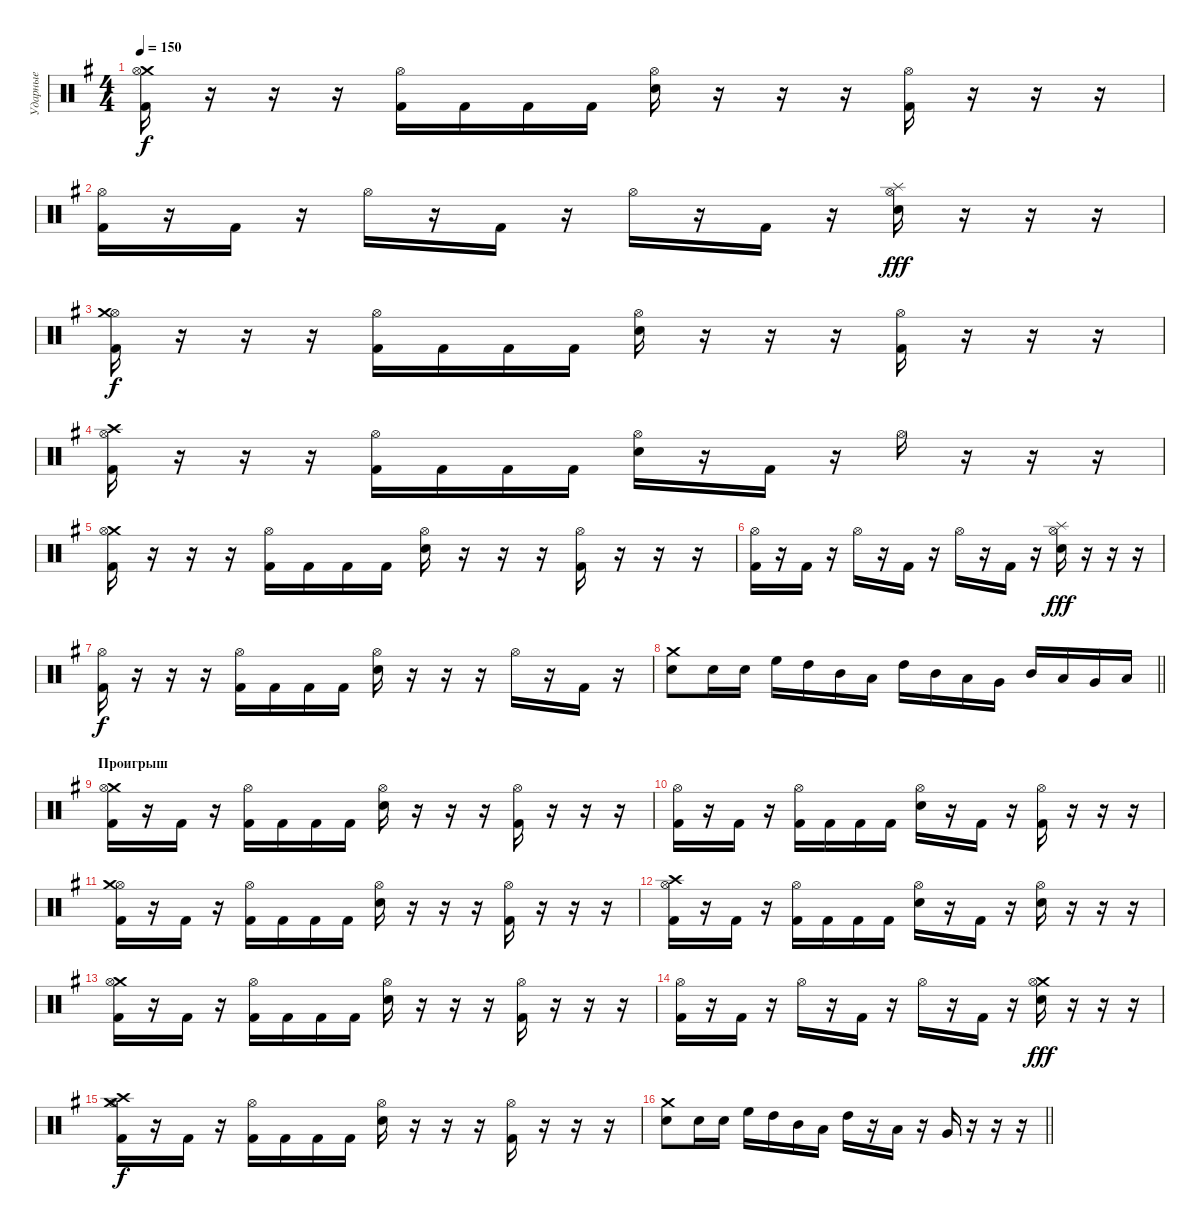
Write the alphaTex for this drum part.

\track ("Ударные" "Ударные") {instrument percussion}
\staff {score}
\articulation defaults
\ts (4 4)
\tempo 150
\clef neutral
\ks eminor
("Crash medium (hit)" "Kick (hit) 2" "Hi-Hat (open)").16{dy f} r.16 r.16 r.16 ("Kick (hit) 2" "Hi-Hat (open)").16 "Kick (hit) 2".16 "Kick (hit) 2".16 "Kick (hit) 2".16 ("Electric Snare (hit)" "Hi-Hat (open)").16 r.16 r.16 r.16 ("Kick (hit) 2" "Hi-Hat (open)").16 r.16 r.16 r.16 |
("Kick (hit) 2" "Hi-Hat (open)").16 r.16 "Kick (hit) 2".16 r.16 "Hi-Hat (open)".16 r.16 "Kick (hit) 2".16 r.16 "Hi-Hat (open)".16 r.16 "Kick (hit) 2".16 r.16 ("Splash (hit)" "Electric Snare (hit)" "Hi-Hat (open)").16{dy fff} r.16 r.16 r.16 |
("Kick (hit) 2" "Hi-Hat (open)" "Crash medium (hit)").16{dy f} r.16 r.16 r.16 ("Kick (hit) 2" "Hi-Hat (open)").16 "Kick (hit) 2".16 "Kick (hit) 2".16 "Kick (hit) 2".16 ("Electric Snare (hit)" "Hi-Hat (open)").16 r.16 r.16 r.16 ("Kick (hit) 2" "Hi-Hat (open)").16 r.16 r.16 r.16 |
("Kick (hit) 2" "Hi-Hat (open)" "Crash high (hit)").16 r.16 r.16 r.16 ("Kick (hit) 2" "Hi-Hat (open)").16 "Kick (hit) 2".16 "Kick (hit) 2".16 "Kick (hit) 2".16 ("Electric Snare (hit)" "Hi-Hat (open)").16 r.16 "Kick (hit) 2".16 r.16 "Hi-Hat (open)".16 r.16 r.16 r.16 |
("Crash medium (hit)" "Kick (hit) 2" "Hi-Hat (open)").16 r.16 r.16 r.16 ("Kick (hit) 2" "Hi-Hat (open)").16 "Kick (hit) 2".16 "Kick (hit) 2".16 "Kick (hit) 2".16 ("Electric Snare (hit)" "Hi-Hat (open)").16 r.16 r.16 r.16 ("Kick (hit) 2" "Hi-Hat (open)").16 r.16 r.16 r.16 |
("Kick (hit) 2" "Hi-Hat (open)").16 r.16 "Kick (hit) 2".16 r.16 "Hi-Hat (open)".16 r.16 "Kick (hit) 2".16 r.16 "Hi-Hat (open)".16 r.16 "Kick (hit) 2".16 r.16 ("Splash (hit)" "Electric Snare (hit)" "Hi-Hat (open)").16{dy fff} r.16 r.16 r.16 |
("Kick (hit) 2" "Hi-Hat (open)").16{dy f} r.16 r.16 r.16 ("Kick (hit) 2" "Hi-Hat (open)").16 "Kick (hit) 2".16 "Kick (hit) 2".16 "Kick (hit) 2".16 ("Electric Snare (hit)" "Hi-Hat (open)").16 r.16 r.16 r.16 "Hi-Hat (open)".16 r.16 "Kick (hit) 2".16 r.16 |
\barLineRight lightlight
("Crash medium (hit)" "Electric Snare (hit)").8 "Electric Snare (hit)".16 "Electric Snare (hit)".16 "High Floor Tom (hit)".16 "High Tom (hit)".16 "Mid Tom (hit)".16 "Low Tom (hit)".16 "High Tom (hit)".16 "Mid Tom (hit)".16 "Low Tom (hit)".16 "Very Low Tom (hit)".16 "Mid Tom (hit)".16 "Low Tom (hit)".16 "Very Low Tom (hit)".16 "Low Floor Tom (hit)".16 |
\section ("" "Проигрыш")
("Crash medium (hit)" "Kick (hit) 2" "Hi-Hat (open)").16 r.16 "Kick (hit) 2".16 r.16 ("Kick (hit) 2" "Hi-Hat (open)").16 "Kick (hit) 2".16 "Kick (hit) 2".16 "Kick (hit) 2".16 ("Electric Snare (hit)" "Hi-Hat (open)").16 r.16 r.16 r.16 ("Kick (hit) 2" "Hi-Hat (open)").16 r.16 r.16 r.16 |
("Kick (hit) 2" "Hi-Hat (open)").16 r.16 "Kick (hit) 2".16 r.16 ("Kick (hit) 2" "Hi-Hat (open)").16 "Kick (hit) 2".16 "Kick (hit) 2".16 "Kick (hit) 2".16 ("Electric Snare (hit)" "Hi-Hat (open)").16 r.16 "Kick (hit) 2".16 r.16 ("Kick (hit) 2" "Hi-Hat (open)").16 r.16 r.16 r.16 |
("Kick (hit) 2" "Hi-Hat (open)" "Crash medium (hit)").16 r.16 "Kick (hit) 2".16 r.16 ("Kick (hit) 2" "Hi-Hat (open)").16 "Kick (hit) 2".16 "Kick (hit) 2".16 "Kick (hit) 2".16 ("Electric Snare (hit)" "Hi-Hat (open)").16 r.16 r.16 r.16 ("Kick (hit) 2" "Hi-Hat (open)").16 r.16 r.16 r.16 |
("Kick (hit) 2" "Hi-Hat (open)" "Crash high (hit)").16 r.16 "Kick (hit) 2".16 r.16 ("Kick (hit) 2" "Hi-Hat (open)").16 "Kick (hit) 2".16 "Kick (hit) 2".16 "Kick (hit) 2".16 ("Electric Snare (hit)" "Hi-Hat (open)").16 r.16 "Kick (hit) 2".16 r.16 ("Electric Snare (hit)" "Hi-Hat (open)").16 r.16 r.16 r.16 |
("Crash medium (hit)" "Kick (hit) 2" "Hi-Hat (open)").16 r.16 "Kick (hit) 2".16 r.16 ("Kick (hit) 2" "Hi-Hat (open)").16 "Kick (hit) 2".16 "Kick (hit) 2".16 "Kick (hit) 2".16 ("Electric Snare (hit)" "Hi-Hat (open)").16 r.16 r.16 r.16 ("Kick (hit) 2" "Hi-Hat (open)").16 r.16 r.16 r.16 |
("Kick (hit) 2" "Hi-Hat (open)").16 r.16 "Kick (hit) 2".16 r.16 "Hi-Hat (open)".16 r.16 "Kick (hit) 2".16 r.16 "Hi-Hat (open)".16 r.16 "Kick (hit) 2".16 r.16 ("Crash medium (hit)" "Electric Snare (hit)" "Hi-Hat (open)").16{dy fff} r.16 r.16 r.16 |
("Crash high (hit)" "Kick (hit) 2" "Hi-Hat (open)" "Crash medium (hit)").16{dy f} r.16 "Kick (hit) 2".16 r.16 ("Kick (hit) 2" "Hi-Hat (open)").16 "Kick (hit) 2".16 "Kick (hit) 2".16 "Kick (hit) 2".16 ("Electric Snare (hit)" "Hi-Hat (open)").16 r.16 r.16 r.16 ("Kick (hit) 2" "Hi-Hat (open)").16 r.16 r.16 r.16 |
\barLineRight lightlight
("Crash medium (hit)" "Electric Snare (hit)").8 "Electric Snare (hit)".16 "Electric Snare (hit)".16 "High Floor Tom (hit)".16 "High Tom (hit)".16 "Mid Tom (hit)".16 "Low Tom (hit)".16 "High Tom (hit)".16 r.16 "Low Tom (hit)".16 r.16 "Very Low Tom (hit)".16 r.16 r.16 r.16
